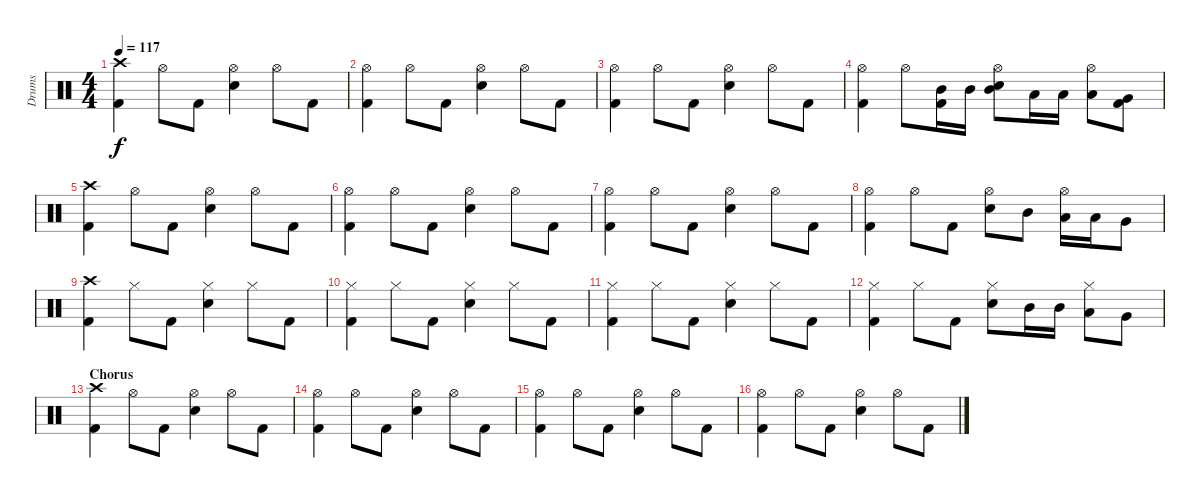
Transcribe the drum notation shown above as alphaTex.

\track ("Drums" "Drums") {instrument percussion}
\staff {score}
\articulation defaults
\ts (4 4)
\tempo 117
\clef neutral
\ks c
("Kick (hit) 2" "Crash high (hit)").4{dy f} "Hi-Hat (open)".8 "Kick (hit) 2".8 ("Snare (hit) 2" "Hi-Hat (open)").4 "Hi-Hat (open)".8 "Kick (hit) 2".8 |
("Kick (hit) 2" "Hi-Hat (open)").4 "Hi-Hat (open)".8 "Kick (hit) 2".8 ("Snare (hit) 2" "Hi-Hat (open)").4 "Hi-Hat (open)".8 "Kick (hit) 2".8 |
("Kick (hit) 2" "Hi-Hat (open)").4 "Hi-Hat (open)".8 "Kick (hit) 2".8 ("Snare (hit) 2" "Hi-Hat (open)").4 "Hi-Hat (open)".8 "Kick (hit) 2".8 |
("Kick (hit) 2" "Hi-Hat (open)").4 "Hi-Hat (open)".8 ("Mid Tom (hit)" "Kick (hit) 2").16 "Mid Tom (hit)".16 ("Mid Tom (hit)" "Hi-Hat (open)" "Snare (hit) 2").8 "Low Tom (hit)".16 "Low Tom (hit)".16 ("Low Tom (hit)" "Hi-Hat (open)").8 ("Very Low Tom (hit)" "Kick (hit) 2").8 |
("Kick (hit) 2" "Crash high (hit)").4 "Hi-Hat (open)".8 "Kick (hit) 2".8 ("Snare (hit) 2" "Hi-Hat (open)").4 "Hi-Hat (open)".8 "Kick (hit) 2".8 |
("Kick (hit) 2" "Hi-Hat (open)").4 "Hi-Hat (open)".8 "Kick (hit) 2".8 ("Snare (hit) 2" "Hi-Hat (open)").4 "Hi-Hat (open)".8 "Kick (hit) 2".8 |
("Kick (hit) 2" "Hi-Hat (open)").4 "Hi-Hat (open)".8 "Kick (hit) 2".8 ("Snare (hit) 2" "Hi-Hat (open)").4 "Hi-Hat (open)".8 "Kick (hit) 2".8 |
("Kick (hit) 2" "Hi-Hat (open)").4 "Hi-Hat (open)".8 "Kick (hit) 2".8 ("Snare (hit) 2" "Hi-Hat (open)").8 "Mid Tom (hit)".8 ("Low Tom (hit)" "Hi-Hat (open)").16 "Low Tom (hit)".16 "Very Low Tom (hit)".8 |
("Kick (hit) 2" "Crash high (hit)").4 "Hi-Hat (closed)".8 "Kick (hit) 2".8 ("Snare (hit) 2" "Hi-Hat (closed)").4 "Hi-Hat (closed)".8 "Kick (hit) 2".8 |
("Kick (hit) 2" "Hi-Hat (closed)").4 "Hi-Hat (closed)".8 "Kick (hit) 2".8 ("Snare (hit) 2" "Hi-Hat (closed)").4 "Hi-Hat (closed)".8 "Kick (hit) 2".8 |
("Kick (hit) 2" "Hi-Hat (closed)").4 "Hi-Hat (closed)".8 "Kick (hit) 2".8 ("Snare (hit) 2" "Hi-Hat (closed)").4 "Hi-Hat (closed)".8 "Kick (hit) 2".8 |
("Kick (hit) 2" "Hi-Hat (closed)").4 "Hi-Hat (closed)".8 "Kick (hit) 2".8 ("Hi-Hat (closed)" "Snare (hit) 2").8 "Mid Tom (hit)".16 "Mid Tom (hit)".16 ("Low Tom (hit)" "Hi-Hat (closed)").8 "Very Low Tom (hit)".8 |
\section ("" "Chorus")
("Kick (hit) 2" "Crash high (hit)").4 "Hi-Hat (open)".8 "Kick (hit) 2".8 ("Snare (hit) 2" "Hi-Hat (open)").4 "Hi-Hat (open)".8 "Kick (hit) 2".8 |
("Kick (hit) 2" "Hi-Hat (open)").4 "Hi-Hat (open)".8 "Kick (hit) 2".8 ("Snare (hit) 2" "Hi-Hat (open)").4 "Hi-Hat (open)".8 "Kick (hit) 2".8 |
("Kick (hit) 2" "Hi-Hat (open)").4 "Hi-Hat (open)".8 "Kick (hit) 2".8 ("Snare (hit) 2" "Hi-Hat (open)").4 "Hi-Hat (open)".8 "Kick (hit) 2".8 |
("Kick (hit) 2" "Hi-Hat (open)").4 "Hi-Hat (open)".8 "Kick (hit) 2".8 ("Snare (hit) 2" "Hi-Hat (open)").4 "Hi-Hat (open)".8 "Kick (hit) 2".8
